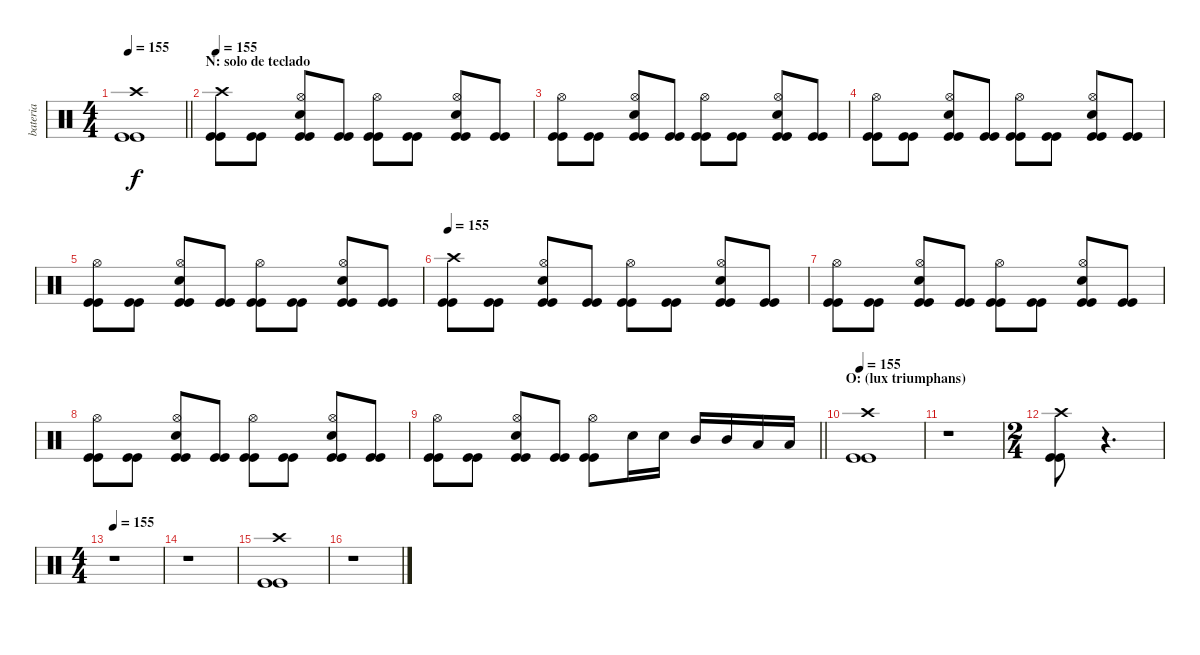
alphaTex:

\track ("bateria" "bateria") {instrument percussion}
\staff {score}
\articulation defaults
\ts (4 4)
\tempo 155
\clef neutral
\barLineRight lightlight
\ks c
("Crash high (hit)" "Kick (hit)" "Kick (hit)").1{dy f} |
\section ("" "N: solo de teclado")
\tempo 155
("Crash high (hit)" "Kick (hit)" "Kick (hit)").8 ("Kick (hit)" "Kick (hit)").8 ("Hi-Hat (open)" "Snare (hit) 2" "Kick (hit)" "Kick (hit)").8 ("Kick (hit)" "Kick (hit)").8 ("Hi-Hat (open)" "Kick (hit)" "Kick (hit)").8 ("Kick (hit)" "Kick (hit)").8 ("Hi-Hat (open)" "Snare (hit) 2" "Kick (hit)" "Kick (hit)").8 ("Kick (hit)" "Kick (hit)").8 |
("Hi-Hat (open)" "Kick (hit)" "Kick (hit)").8 ("Kick (hit)" "Kick (hit)").8 ("Hi-Hat (open)" "Snare (hit) 2" "Kick (hit)" "Kick (hit)").8 ("Kick (hit)" "Kick (hit)").8 ("Hi-Hat (open)" "Kick (hit)" "Kick (hit)").8 ("Kick (hit)" "Kick (hit)").8 ("Hi-Hat (open)" "Snare (hit) 2" "Kick (hit)" "Kick (hit)").8 ("Kick (hit)" "Kick (hit)").8 |
("Hi-Hat (open)" "Kick (hit)" "Kick (hit)").8 ("Kick (hit)" "Kick (hit)").8 ("Hi-Hat (open)" "Snare (hit) 2" "Kick (hit)" "Kick (hit)").8 ("Kick (hit)" "Kick (hit)").8 ("Hi-Hat (open)" "Kick (hit)" "Kick (hit)").8 ("Kick (hit)" "Kick (hit)").8 ("Hi-Hat (open)" "Snare (hit) 2" "Kick (hit)" "Kick (hit)").8 ("Kick (hit)" "Kick (hit)").8 |
("Hi-Hat (open)" "Kick (hit)" "Kick (hit)").8 ("Kick (hit)" "Kick (hit)").8 ("Hi-Hat (open)" "Snare (hit) 2" "Kick (hit)" "Kick (hit)").8 ("Kick (hit)" "Kick (hit)").8 ("Hi-Hat (open)" "Kick (hit)" "Kick (hit)").8 ("Kick (hit)" "Kick (hit)").8 ("Hi-Hat (open)" "Snare (hit) 2" "Kick (hit)" "Kick (hit)").8 ("Kick (hit)" "Kick (hit)").8 |
\tempo 155
("Crash high (hit)" "Kick (hit)" "Kick (hit)").8 ("Kick (hit)" "Kick (hit)").8 ("Hi-Hat (open)" "Snare (hit) 2" "Kick (hit)" "Kick (hit)").8 ("Kick (hit)" "Kick (hit)").8 ("Hi-Hat (open)" "Kick (hit)" "Kick (hit)").8 ("Kick (hit)" "Kick (hit)").8 ("Hi-Hat (open)" "Snare (hit) 2" "Kick (hit)" "Kick (hit)").8 ("Kick (hit)" "Kick (hit)").8 |
("Hi-Hat (open)" "Kick (hit)" "Kick (hit)").8 ("Kick (hit)" "Kick (hit)").8 ("Hi-Hat (open)" "Snare (hit) 2" "Kick (hit)" "Kick (hit)").8 ("Kick (hit)" "Kick (hit)").8 ("Hi-Hat (open)" "Kick (hit)" "Kick (hit)").8 ("Kick (hit)" "Kick (hit)").8 ("Hi-Hat (open)" "Snare (hit) 2" "Kick (hit)" "Kick (hit)").8 ("Kick (hit)" "Kick (hit)").8 |
("Hi-Hat (open)" "Kick (hit)" "Kick (hit)").8 ("Kick (hit)" "Kick (hit)").8 ("Hi-Hat (open)" "Snare (hit) 2" "Kick (hit)" "Kick (hit)").8 ("Kick (hit)" "Kick (hit)").8 ("Hi-Hat (open)" "Kick (hit)" "Kick (hit)").8 ("Kick (hit)" "Kick (hit)").8 ("Hi-Hat (open)" "Snare (hit) 2" "Kick (hit)" "Kick (hit)").8 ("Kick (hit)" "Kick (hit)").8 |
\barLineRight lightlight
("Hi-Hat (open)" "Kick (hit)" "Kick (hit)").8 ("Kick (hit)" "Kick (hit)").8 ("Hi-Hat (open)" "Snare (hit) 2" "Kick (hit)" "Kick (hit)").8 ("Kick (hit)" "Kick (hit)").8 ("Hi-Hat (open)" "Kick (hit)" "Kick (hit)").8 "Snare (hit) 2".16 "Snare (hit) 2".16 "Mid Tom (hit)".16 "Mid Tom (hit)".16 "Low Tom (hit)".16 "Low Tom (hit)".16 |
\section ("" "O: (lux triumphans)")
\tempo 155
("Crash high (hit)" "Kick (hit)" "Kick (hit)").1 |
r.1 |
\ts (2 4)
("Crash high (hit)" "Kick (hit)" "Kick (hit)").8 r.4{d} |
\ts (4 4)
\tempo 155
r.1 |
r.1 |
("Crash high (hit)" "Kick (hit)" "Kick (hit)").1 |
r.1
